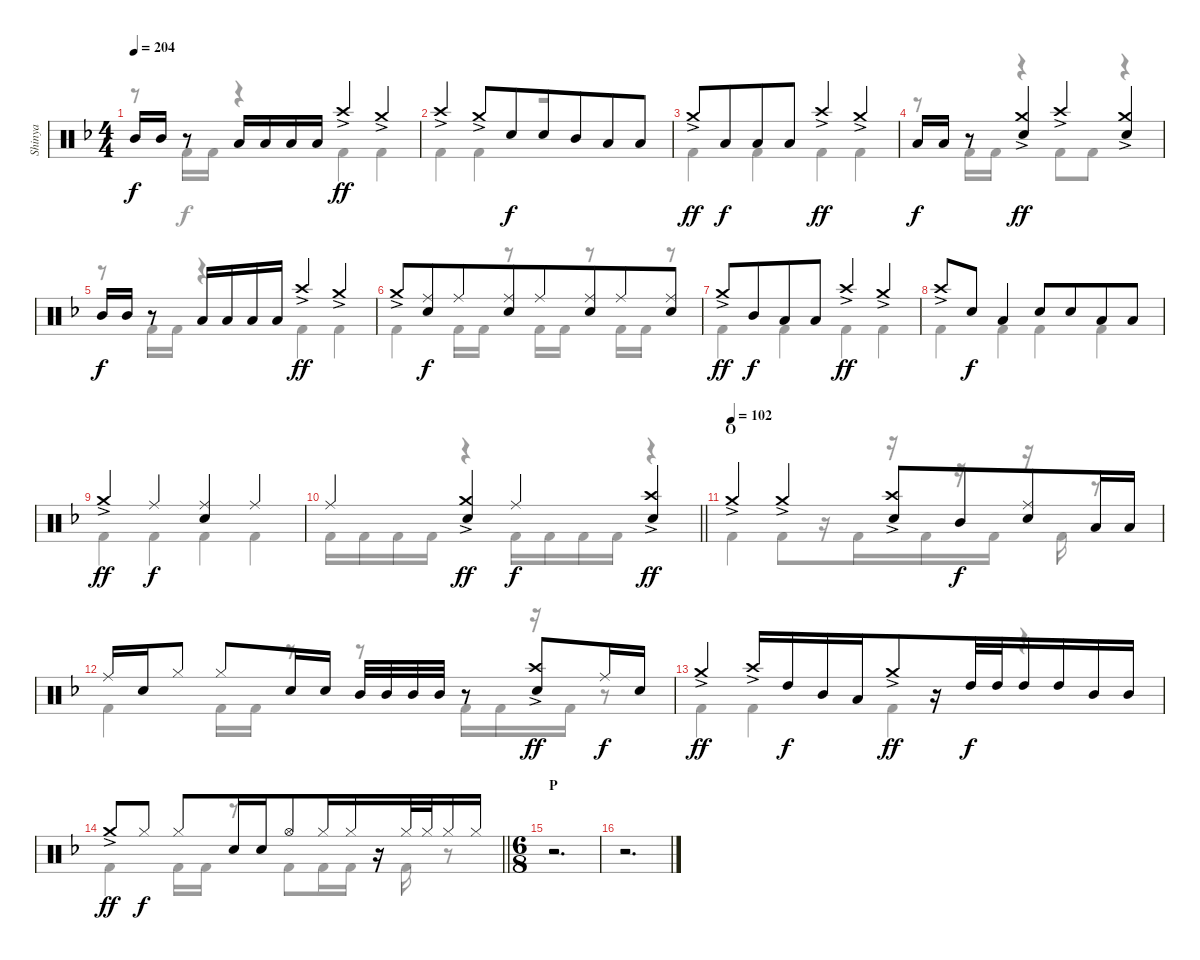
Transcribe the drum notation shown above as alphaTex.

\track ("Shinya" "Shinya") {mute instrument percussion}
\staff {score}
\articulation defaults
\voice
\ts (4 4)
\tempo 204
\clef neutral
\ks f "Mid Tom (hit)".16{dy f} "Mid Tom (hit)".16
r.8 "Low Tom (hit)".16{beam merge} "Low Tom (hit)".16{beam merge} "Low Tom (hit)".16{beam merge} "Low Tom (hit)".16 "Crash high (hit)"{ac}.4{dy ff beam merge} "Crash medium (hit)"{ac}.4 |
"Crash high (hit)"{ac}.4 "Crash medium (hit)"{ac}.8{beam merge} "Snare (hit) 2".8{dy f beam merge} "Snare (hit) 2".8 "Mid Tom (hit)".8{beam merge} "Low Tom (hit)".8 "Low Tom (hit)".8 |
"Crash medium (hit)"{ac}.8{dy ff} "Low Tom (hit)".8{dy f beam merge} "Low Tom (hit)".8{beam merge} "Low Tom (hit)".8{beam merge} "Crash high (hit)"{ac}.4{dy ff} "Crash medium (hit)"{ac}.4 |
"Low Tom (hit)".16{dy f} "Low Tom (hit)".16 r.8 ("Crash medium (hit)"{ac} "Snare (hit) 2").4{dy ff beam merge} "Crash high (hit)"{ac}.4 ("Crash medium (hit)"{ac} "Snare (hit) 2").4 |
"Mid Tom (hit)".16{dy f} "Mid Tom (hit)".16 r.8 "Low Tom (hit)".16{beam merge} "Low Tom (hit)".16 "Low Tom (hit)".16{beam merge} "Low Tom (hit)".16{beam merge} "Crash high (hit)"{ac}.4{dy ff} "Crash medium (hit)"{ac}.4 |
"Crash medium (hit)"{ac}.8 ("Ride (middle)" "Snare (hit) 2").8{dy f beam merge} "Ride (middle)".8{beam merge} ("Ride (middle)" "Snare (hit) 2").8{beam merge} "Ride (middle)".8 ("Ride (middle)" "Snare (hit) 2").8{beam merge} "Ride (middle)".8 ("Ride (middle)" "Snare (hit) 2").8 |
"Crash medium (hit)"{ac}.8{dy ff} "Mid Tom (hit)".8{dy f beam merge} "Low Tom (hit)".8{beam merge} "Low Tom (hit)".8{beam merge} "Crash high (hit)"{ac}.4{dy ff} "Crash medium (hit)"{ac}.4 |
"Crash high (hit)"{ac}.8 "Snare (hit) 2".8{dy f} "Low Tom (hit)".4{beam merge} "Snare (hit) 2".8 "Snare (hit) 2".8{beam merge} "Low Tom (hit)".8 "Low Tom (hit)".8 |
"Crash medium (hit)"{ac}.4{dy ff} "Ride (middle)".4{dy f} ("Ride (middle)" "Snare (hit) 2").4{beam merge} "Ride (middle)".4 |
\barLineRight lightlight "Ride (middle)".4
("Crash medium (hit)"{ac} "Snare (hit) 2").4{dy ff} "Ride (middle)".4{dy f beam merge} ("Crash high (hit)"{ac} "Snare (hit) 2").4{dy ff} |
\section ("" "O")
\tempo (102)
"Crash medium (hit)"{ac}.4{beam merge} "Crash medium (hit)"{ac}.4{beam merge} ("Crash high (hit)"{ac} "Snare (hit) 2").8 "Mid Tom (hit)".8{dy f beam merge} ("Ride (middle)" "Snare (hit) 2").8 "Low Tom (hit)".16 "Low Tom (hit)".16 |
"Ride (middle)".16 "Snare (hit) 2".16 "Hi-Hat (closed)".8 "Hi-Hat (closed)".8 "Snare (hit) 2".16{beam merge} "Snare (hit) 2".16 "Mid Tom (hit)".32 "Mid Tom (hit)".32 "Mid Tom (hit)".32{beam merge} "Mid Tom (hit)".32 r.8{beam merge} ("Crash high (hit)"{ac} "Snare (hit) 2").8{dy ff} "Ride (middle)".16{dy f} "Snare (hit) 2".16 |
"Crash medium (hit)"{ac}.4{dy ff} "Crash high (hit)"{ac}.16 "High Tom (hit)".16{dy f} "Mid Tom (hit)".16 "Low Tom (hit)".16{beam merge} "Crash medium (hit)"{ac}.8{dy ff} r.16 "High Tom (hit)".32{dy f} "High Tom (hit)".32{beam merge} "High Tom (hit)".16 "High Tom (hit)".16 "Mid Tom (hit)".16{beam merge} "Mid Tom (hit)".16 |
\barLineRight lightlight "Crash medium (hit)"{ac}.8{dy ff} "Hi-Hat (closed)".8{dy f} "Hi-Hat (closed)".8 "Snare (hit) 2".16{beam merge} "Snare (hit) 2".16{beam merge} "Hi-Hat (open)".8 "Hi-Hat (closed)".16 "Hi-Hat (closed)".16{beam merge}
r.16 "Hi-Hat (closed)".32 "Hi-Hat (closed)".32 "Hi-Hat (closed)".16 "Hi-Hat (closed)".16 |
\ts (6 8)
\section ("" "P")
r.2{d} |
r.2{d}
\voice
\clef neutral
\ottava regular
\simile none
\ks f
r.8{dy f beam merge} "Kick (hit) 2".16 "Kick (hit) 2".16 r.4 "Kick (hit) 2".4 "Kick (hit) 2".4 |
"Kick (hit) 2".4 "Kick (hit) 2".4 r.2 |
"Kick (hit) 2".4 "Kick (hit) 2".4 "Kick (hit) 2".4 "Kick (hit) 2".4 |
r.8{beam merge} "Kick (hit) 2".16 "Kick (hit) 2".16 r.4 "Kick (hit) 2".8 "Kick (hit) 2".8 r.4 |
r.8{beam merge} "Kick (hit) 2".16 "Kick (hit) 2".16 r.4 "Kick (hit) 2".4 "Kick (hit) 2".4 |
"Kick (hit) 2".4 "Kick (hit) 2".16 "Kick (hit) 2".16 r.8 "Kick (hit) 2".16 "Kick (hit) 2".16 r.8 "Kick (hit) 2".16 "Kick (hit) 2".16 r.8 |
"Kick (hit) 2".4 "Kick (hit) 2".4 "Kick (hit) 2".4 "Kick (hit) 2".4 |
"Kick (hit) 2".4 "Kick (hit) 2".4 "Kick (hit) 2".4 "Kick (hit) 2".4 |
"Kick (hit) 2".4 "Kick (hit) 2".4 "Kick (hit) 2".4 "Kick (hit) 2".4 |
\barLineRight lightlight "Kick (hit) 2".16 "Kick (hit) 2".16 "Kick (hit) 2".16 "Kick (hit) 2".16
r.4 "Kick (hit) 2".16 "Kick (hit) 2".16 "Kick (hit) 2".16 "Kick (hit) 2".16 r.4 |
"Kick (hit) 2".4 "Kick (hit) 2".8 r.16 "Kick (hit) 2".16{beam merge} r.16 "Kick (hit) 2".16 r.16 "Kick (hit) 2".16 r.16 "Kick (hit) 2".16 r.8 |
"Kick (hit) 2".4 "Kick (hit) 2".16 "Kick (hit) 2".16 r.8 r.8 "Kick (hit) 2".16 "Kick (hit) 2".16{beam merge} r.16 "Kick (hit) 2".16 r.8 |
"Kick (hit) 2".4 "Kick (hit) 2".4 "Kick (hit) 2".4 r.4 |
\barLineRight lightlight "Kick (hit) 2".4{beam merge} "Kick (hit) 2".16 "Kick (hit) 2".16
r.8 "Kick (hit) 2".8{beam merge} "Kick (hit) 2".16 "Kick (hit) 2".16 r.16 "Kick (hit) 2".16 r.8 |
r.2{d} |
r.2{d}
